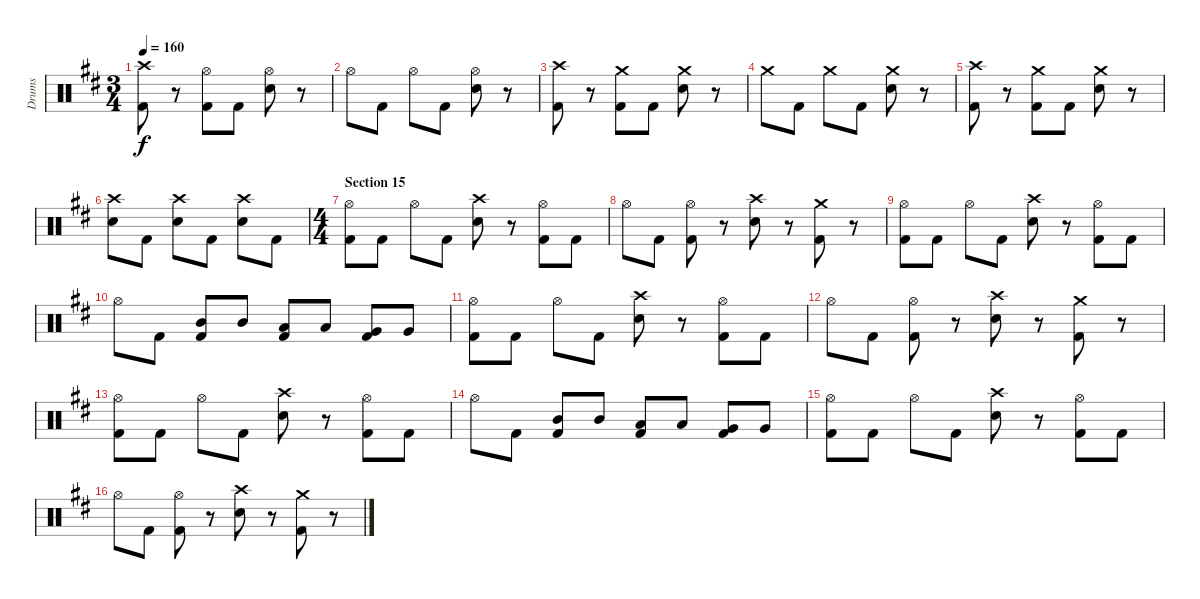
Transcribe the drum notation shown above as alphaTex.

\track ("Drums" "Drums") {instrument percussion}
\staff {score}
\articulation defaults
\ts (3 4)
\tempo 160
\clef neutral
\ks bminor
("Crash high (hit)" "Kick (hit) 2").8{dy f} r.8 ("Hi-Hat (open)" "Kick (hit) 2").8 "Kick (hit) 2".8 ("Hi-Hat (open)" "Snare (hit) 2").8 r.8 |
"Hi-Hat (open)".8 "Kick (hit) 2".8 "Hi-Hat (open)".8 "Kick (hit) 2".8 ("Hi-Hat (open)" "Snare (hit) 2").8 r.8 |
("Crash high (hit)" "Kick (hit) 2").8 r.8 ("Crash medium (hit)" "Kick (hit) 2").8 "Kick (hit) 2".8 ("Crash medium (hit)" "Snare (hit) 2").8 r.8 |
"Crash medium (hit)".8 "Kick (hit) 2".8 "Crash medium (hit)".8 "Kick (hit) 2".8 ("Crash medium (hit)" "Snare (hit) 2").8 r.8 |
("Crash high (hit)" "Kick (hit) 2").8 r.8 ("Crash medium (hit)" "Kick (hit) 2").8 "Kick (hit) 2".8 ("Crash medium (hit)" "Snare (hit) 2").8 r.8 |
("Crash high (hit)" "Snare (hit) 2").8 "Kick (hit) 2".8 ("Crash high (hit)" "Snare (hit) 2").8 "Kick (hit) 2".8 ("Crash high (hit)" "Snare (hit) 2").8 "Kick (hit) 2".8 |
\ts (4 4)
\section ("" "Section 15")
("Hi-Hat (open)" "Kick (hit) 2").8 "Kick (hit) 2".8 "Hi-Hat (open)".8 "Kick (hit) 2".8 ("Crash high (hit)" "Snare (hit) 2").8 r.8 ("Hi-Hat (open)" "Kick (hit) 2").8 "Kick (hit) 2".8 |
"Hi-Hat (open)".8 "Kick (hit) 2".8 ("Hi-Hat (open)" "Kick (hit) 2").8 r.8 ("Crash high (hit)" "Snare (hit) 2").8 r.8 ("Crash medium (hit)" "Kick (hit) 2").8 r.8 |
("Hi-Hat (open)" "Kick (hit) 2").8 "Kick (hit) 2".8 "Hi-Hat (open)".8 "Kick (hit) 2".8 ("Crash high (hit)" "Snare (hit) 2").8 r.8 ("Hi-Hat (open)" "Kick (hit) 2").8 "Kick (hit) 2".8 |
"Hi-Hat (open)".8 "Kick (hit) 2".8 ("Mid Tom (hit)" "Kick (hit) 2").8 "Mid Tom (hit)".8 ("Low Tom (hit)" "Kick (hit) 2").8 "Low Tom (hit)".8 ("Very Low Tom (hit)" "Kick (hit) 2").8 "Very Low Tom (hit)".8 |
("Hi-Hat (open)" "Kick (hit) 2").8 "Kick (hit) 2".8 "Hi-Hat (open)".8 "Kick (hit) 2".8 ("Crash high (hit)" "Snare (hit) 2").8 r.8 ("Hi-Hat (open)" "Kick (hit) 2").8 "Kick (hit) 2".8 |
"Hi-Hat (open)".8 "Kick (hit) 2".8 ("Hi-Hat (open)" "Kick (hit) 2").8 r.8 ("Crash high (hit)" "Snare (hit) 2").8 r.8 ("Crash medium (hit)" "Kick (hit) 2").8 r.8 |
("Hi-Hat (open)" "Kick (hit) 2").8 "Kick (hit) 2".8 "Hi-Hat (open)".8 "Kick (hit) 2".8 ("Crash high (hit)" "Snare (hit) 2").8 r.8 ("Hi-Hat (open)" "Kick (hit) 2").8 "Kick (hit) 2".8 |
"Hi-Hat (open)".8 "Kick (hit) 2".8 ("Mid Tom (hit)" "Kick (hit) 2").8 "Mid Tom (hit)".8 ("Low Tom (hit)" "Kick (hit) 2").8 "Low Tom (hit)".8 ("Very Low Tom (hit)" "Kick (hit) 2").8 "Very Low Tom (hit)".8 |
("Hi-Hat (open)" "Kick (hit) 2").8 "Kick (hit) 2".8 "Hi-Hat (open)".8 "Kick (hit) 2".8 ("Crash high (hit)" "Snare (hit) 2").8 r.8 ("Hi-Hat (open)" "Kick (hit) 2").8 "Kick (hit) 2".8 |
"Hi-Hat (open)".8 "Kick (hit) 2".8 ("Hi-Hat (open)" "Kick (hit) 2").8 r.8 ("Crash high (hit)" "Snare (hit) 2").8 r.8 ("Crash medium (hit)" "Kick (hit) 2").8 r.8
